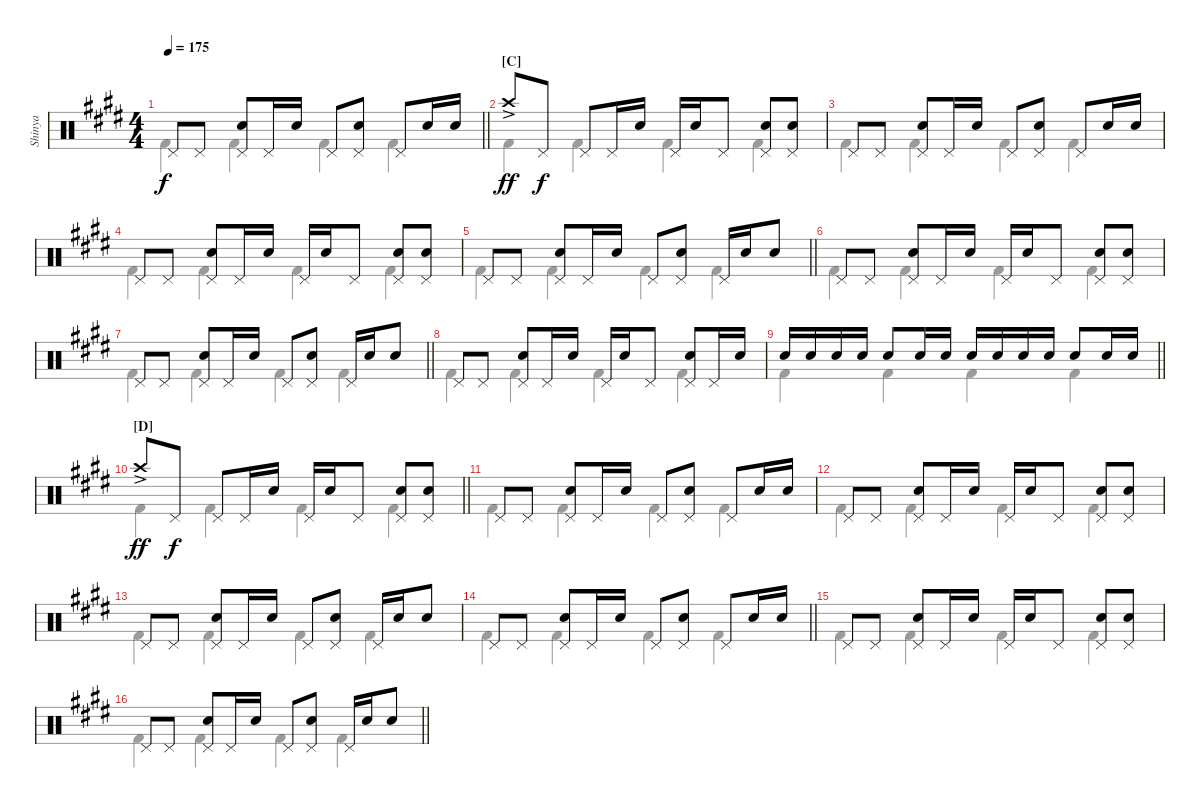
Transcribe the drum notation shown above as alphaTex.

\track ("Shinya" "Shinya") {instrument percussion}
\staff {score}
\articulation defaults
\voice
\ts (4 4)
\tempo 175
\clef neutral
\barLineRight lightlight
\ks c#minor "Pedal Hi-Hat (hit)".8{dy f} "Pedal Hi-Hat (hit)".8
("Pedal Hi-Hat (hit)" "Snare (hit) 2").8 "Pedal Hi-Hat (hit)".16 "Snare (hit) 2".16 "Pedal Hi-Hat (hit)".8 ("Pedal Hi-Hat (hit)" "Snare (hit) 2").8 "Pedal Hi-Hat (hit)".8 "Snare (hit) 2".16 "Snare (hit) 2".16 |
\section ("" "[C]")
"Crash high (hit)"{ac}.8{dy ff} "Pedal Hi-Hat (hit)".8{dy f} "Pedal Hi-Hat (hit)".8 "Pedal Hi-Hat (hit)".16 "Snare (hit) 2".16 "Pedal Hi-Hat (hit)".16 "Snare (hit) 2".16 "Pedal Hi-Hat (hit)".8 ("Pedal Hi-Hat (hit)" "Snare (hit) 2").8 ("Pedal Hi-Hat (hit)" "Snare (hit) 2").8 |
"Pedal Hi-Hat (hit)".8 "Pedal Hi-Hat (hit)".8 ("Pedal Hi-Hat (hit)" "Snare (hit) 2").8 "Pedal Hi-Hat (hit)".16 "Snare (hit) 2".16 "Pedal Hi-Hat (hit)".8 ("Pedal Hi-Hat (hit)" "Snare (hit) 2").8 "Pedal Hi-Hat (hit)".8 "Snare (hit) 2".16 "Snare (hit) 2".16 |
"Pedal Hi-Hat (hit)".8 "Pedal Hi-Hat (hit)".8 ("Pedal Hi-Hat (hit)" "Snare (hit) 2").8 "Pedal Hi-Hat (hit)".16 "Snare (hit) 2".16 "Pedal Hi-Hat (hit)".16 "Snare (hit) 2".16 "Pedal Hi-Hat (hit)".8 ("Pedal Hi-Hat (hit)" "Snare (hit) 2").8 ("Pedal Hi-Hat (hit)" "Snare (hit) 2").8 |
\barLineRight lightlight "Pedal Hi-Hat (hit)".8 "Pedal Hi-Hat (hit)".8
("Pedal Hi-Hat (hit)" "Snare (hit) 2").8 "Pedal Hi-Hat (hit)".16 "Snare (hit) 2".16 "Pedal Hi-Hat (hit)".8 ("Pedal Hi-Hat (hit)" "Snare (hit) 2").8 "Pedal Hi-Hat (hit)".16 "Snare (hit) 2".16 "Snare (hit) 2".8 |
"Pedal Hi-Hat (hit)".8 "Pedal Hi-Hat (hit)".8 ("Pedal Hi-Hat (hit)" "Snare (hit) 2").8 "Pedal Hi-Hat (hit)".16 "Snare (hit) 2".16 "Pedal Hi-Hat (hit)".16 "Snare (hit) 2".16 "Pedal Hi-Hat (hit)".8 ("Pedal Hi-Hat (hit)" "Snare (hit) 2").8 ("Pedal Hi-Hat (hit)" "Snare (hit) 2").8 |
\barLineRight lightlight "Pedal Hi-Hat (hit)".8 "Pedal Hi-Hat (hit)".8
("Pedal Hi-Hat (hit)" "Snare (hit) 2").8 "Pedal Hi-Hat (hit)".16 "Snare (hit) 2".16 "Pedal Hi-Hat (hit)".8 ("Pedal Hi-Hat (hit)" "Snare (hit) 2").8 "Pedal Hi-Hat (hit)".16 "Snare (hit) 2".16 "Snare (hit) 2".8 |
"Pedal Hi-Hat (hit)".8 "Pedal Hi-Hat (hit)".8 ("Pedal Hi-Hat (hit)" "Snare (hit) 2").8 "Pedal Hi-Hat (hit)".16 "Snare (hit) 2".16 "Pedal Hi-Hat (hit)".16 "Snare (hit) 2".16 "Pedal Hi-Hat (hit)".8 ("Pedal Hi-Hat (hit)" "Snare (hit) 2").8 "Pedal Hi-Hat (hit)".16 "Snare (hit) 2".16 |
\barLineRight lightlight "Snare (hit) 2".16 "Snare (hit) 2".16 "Snare (hit) 2".16 "Snare (hit) 2".16 "Snare (hit) 2".8 "Snare (hit) 2".16 "Snare (hit) 2".16 "Snare (hit) 2".16 "Snare (hit) 2".16 "Snare (hit) 2".16 "Snare (hit) 2".16 "Snare (hit) 2".8 "Snare (hit) 2".16 "Snare (hit) 2".16
|
\section ("" "[D]")
\barLineRight lightlight "Crash high (hit)"{ac}.8{dy ff} "Pedal Hi-Hat (hit)".8{dy f} "Pedal Hi-Hat (hit)".8 "Pedal Hi-Hat (hit)".16 "Snare (hit) 2".16 "Pedal Hi-Hat (hit)".16 "Snare (hit) 2".16 "Pedal Hi-Hat (hit)".8
("Pedal Hi-Hat (hit)" "Snare (hit) 2").8 ("Pedal Hi-Hat (hit)" "Snare (hit) 2").8 |
"Pedal Hi-Hat (hit)".8 "Pedal Hi-Hat (hit)".8 ("Pedal Hi-Hat (hit)" "Snare (hit) 2").8 "Pedal Hi-Hat (hit)".16 "Snare (hit) 2".16 "Pedal Hi-Hat (hit)".8 ("Pedal Hi-Hat (hit)" "Snare (hit) 2").8 "Pedal Hi-Hat (hit)".8 "Snare (hit) 2".16 "Snare (hit) 2".16 |
"Pedal Hi-Hat (hit)".8 "Pedal Hi-Hat (hit)".8 ("Pedal Hi-Hat (hit)" "Snare (hit) 2").8 "Pedal Hi-Hat (hit)".16 "Snare (hit) 2".16 "Pedal Hi-Hat (hit)".16 "Snare (hit) 2".16 "Pedal Hi-Hat (hit)".8 ("Pedal Hi-Hat (hit)" "Snare (hit) 2").8 ("Pedal Hi-Hat (hit)" "Snare (hit) 2").8 |
"Pedal Hi-Hat (hit)".8 "Pedal Hi-Hat (hit)".8 ("Pedal Hi-Hat (hit)" "Snare (hit) 2").8 "Pedal Hi-Hat (hit)".16 "Snare (hit) 2".16 "Pedal Hi-Hat (hit)".8 ("Pedal Hi-Hat (hit)" "Snare (hit) 2").8 "Pedal Hi-Hat (hit)".16 "Snare (hit) 2".16 "Snare (hit) 2".8 |
\barLineRight lightlight "Pedal Hi-Hat (hit)".8 "Pedal Hi-Hat (hit)".8
("Pedal Hi-Hat (hit)" "Snare (hit) 2").8 "Pedal Hi-Hat (hit)".16 "Snare (hit) 2".16 "Pedal Hi-Hat (hit)".8 ("Pedal Hi-Hat (hit)" "Snare (hit) 2").8 "Pedal Hi-Hat (hit)".8 "Snare (hit) 2".16 "Snare (hit) 2".16 |
"Pedal Hi-Hat (hit)".8 "Pedal Hi-Hat (hit)".8 ("Pedal Hi-Hat (hit)" "Snare (hit) 2").8 "Pedal Hi-Hat (hit)".16 "Snare (hit) 2".16 "Pedal Hi-Hat (hit)".16 "Snare (hit) 2".16 "Pedal Hi-Hat (hit)".8 ("Pedal Hi-Hat (hit)" "Snare (hit) 2").8 ("Pedal Hi-Hat (hit)" "Snare (hit) 2").8 |
\barLineRight lightlight "Pedal Hi-Hat (hit)".8 "Pedal Hi-Hat (hit)".8
("Pedal Hi-Hat (hit)" "Snare (hit) 2").8 "Pedal Hi-Hat (hit)".16 "Snare (hit) 2".16 "Pedal Hi-Hat (hit)".8 ("Pedal Hi-Hat (hit)" "Snare (hit) 2").8 "Pedal Hi-Hat (hit)".16 "Snare (hit) 2".16 "Snare (hit) 2".8
\voice
\clef neutral
\ottava regular
\simile none
\barLineRight lightlight
\ks c#minor "Kick (hit) 2".4{dy f} "Kick (hit) 2".4 "Kick (hit) 2".4 "Kick (hit) 2".4
|
"Kick (hit) 2".4 "Kick (hit) 2".4 "Kick (hit) 2".4 "Kick (hit) 2".4 |
"Kick (hit) 2".4 "Kick (hit) 2".4 "Kick (hit) 2".4 "Kick (hit) 2".4 |
"Kick (hit) 2".4 "Kick (hit) 2".4 "Kick (hit) 2".4 "Kick (hit) 2".4 |
\barLineRight lightlight "Kick (hit) 2".4 "Kick (hit) 2".4 "Kick (hit) 2".4 "Kick (hit) 2".4
|
"Kick (hit) 2".4 "Kick (hit) 2".4 "Kick (hit) 2".4 "Kick (hit) 2".4 |
\barLineRight lightlight "Kick (hit) 2".4 "Kick (hit) 2".4 "Kick (hit) 2".4 "Kick (hit) 2".4
|
"Kick (hit) 2".4 "Kick (hit) 2".4 "Kick (hit) 2".4 "Kick (hit) 2".4 |
\barLineRight lightlight "Kick (hit) 2".4 "Kick (hit) 2".4 "Kick (hit) 2".4 "Kick (hit) 2".4
|
\barLineRight lightlight "Kick (hit) 2".4 "Kick (hit) 2".4 "Kick (hit) 2".4 "Kick (hit) 2".4
|
"Kick (hit) 2".4 "Kick (hit) 2".4 "Kick (hit) 2".4 "Kick (hit) 2".4 |
"Kick (hit) 2".4 "Kick (hit) 2".4 "Kick (hit) 2".4 "Kick (hit) 2".4 |
"Kick (hit) 2".4 "Kick (hit) 2".4 "Kick (hit) 2".4 "Kick (hit) 2".4 |
\barLineRight lightlight "Kick (hit) 2".4 "Kick (hit) 2".4 "Kick (hit) 2".4 "Kick (hit) 2".4
|
"Kick (hit) 2".4 "Kick (hit) 2".4 "Kick (hit) 2".4 "Kick (hit) 2".4 |
\barLineRight lightlight "Kick (hit) 2".4 "Kick (hit) 2".4 "Kick (hit) 2".4 "Kick (hit) 2".4
